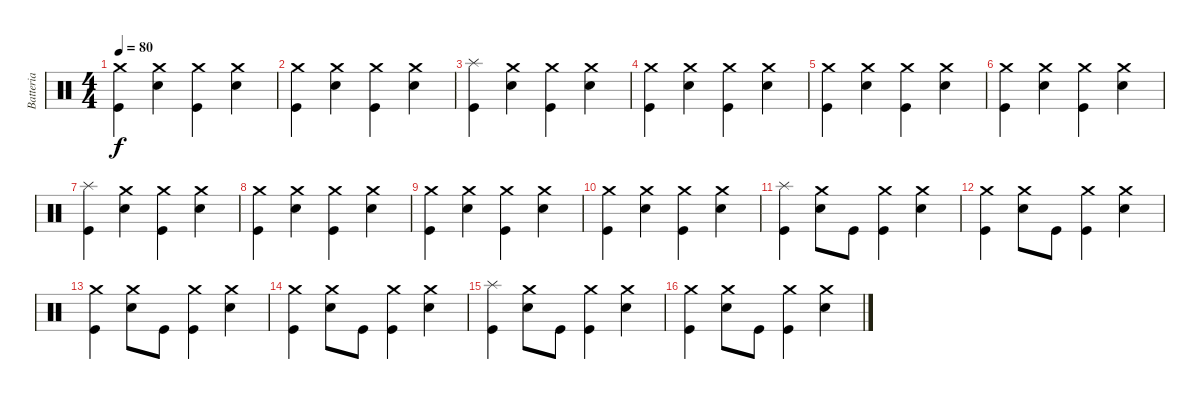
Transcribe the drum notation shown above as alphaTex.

\track ("Batteria" "Batteria") {instrument percussion}
\staff {score}
\articulation defaults
\ts (4 4)
\tempo 80
\clef neutral
\ks c
("Crash medium (hit)" "Kick (hit)").4{dy f} ("Crash medium (hit)" "Electric Snare (hit)").4 ("Crash medium (hit)" "Kick (hit)").4 ("Crash medium (hit)" "Electric Snare (hit)").4 |
("Crash medium (hit)" "Kick (hit)").4 ("Crash medium (hit)" "Electric Snare (hit)").4 ("Crash medium (hit)" "Kick (hit)").4 ("Crash medium (hit)" "Electric Snare (hit)").4 |
("Splash (hit)" "Kick (hit)").4 ("Crash medium (hit)" "Electric Snare (hit)").4 ("Crash medium (hit)" "Kick (hit)").4 ("Crash medium (hit)" "Electric Snare (hit)").4 |
("Crash medium (hit)" "Kick (hit)").4 ("Crash medium (hit)" "Electric Snare (hit)").4 ("Crash medium (hit)" "Kick (hit)").4 ("Crash medium (hit)" "Electric Snare (hit)").4 |
("Crash medium (hit)" "Kick (hit)").4 ("Crash medium (hit)" "Electric Snare (hit)").4 ("Crash medium (hit)" "Kick (hit)").4 ("Crash medium (hit)" "Electric Snare (hit)").4 |
("Crash medium (hit)" "Kick (hit)").4 ("Crash medium (hit)" "Electric Snare (hit)").4 ("Crash medium (hit)" "Kick (hit)").4 ("Crash medium (hit)" "Electric Snare (hit)").4 |
("Splash (hit)" "Kick (hit)").4 ("Crash medium (hit)" "Electric Snare (hit)").4 ("Crash medium (hit)" "Kick (hit)").4 ("Crash medium (hit)" "Electric Snare (hit)").4 |
("Crash medium (hit)" "Kick (hit)").4 ("Crash medium (hit)" "Electric Snare (hit)").4 ("Crash medium (hit)" "Kick (hit)").4 ("Crash medium (hit)" "Electric Snare (hit)").4 |
("Crash medium (hit)" "Kick (hit)").4 ("Crash medium (hit)" "Electric Snare (hit)").4 ("Crash medium (hit)" "Kick (hit)").4 ("Crash medium (hit)" "Electric Snare (hit)").4 |
("Crash medium (hit)" "Kick (hit)").4 ("Crash medium (hit)" "Electric Snare (hit)").4 ("Crash medium (hit)" "Kick (hit)").4 ("Crash medium (hit)" "Electric Snare (hit)").4 |
("Splash (hit)" "Kick (hit)").4 ("Crash medium (hit)" "Electric Snare (hit)").8 "Kick (hit)".8 ("Crash medium (hit)" "Kick (hit)").4 ("Crash medium (hit)" "Electric Snare (hit)").4 |
("Crash medium (hit)" "Kick (hit)").4 ("Crash medium (hit)" "Electric Snare (hit)").8 "Kick (hit)".8 ("Crash medium (hit)" "Kick (hit)").4 ("Crash medium (hit)" "Electric Snare (hit)").4 |
("Crash medium (hit)" "Kick (hit)").4 ("Crash medium (hit)" "Electric Snare (hit)").8 "Kick (hit)".8 ("Crash medium (hit)" "Kick (hit)").4 ("Crash medium (hit)" "Electric Snare (hit)").4 |
("Crash medium (hit)" "Kick (hit)").4 ("Crash medium (hit)" "Electric Snare (hit)").8 "Kick (hit)".8 ("Crash medium (hit)" "Kick (hit)").4 ("Crash medium (hit)" "Electric Snare (hit)").4 |
("Splash (hit)" "Kick (hit)").4 ("Crash medium (hit)" "Electric Snare (hit)").8 "Kick (hit)".8 ("Crash medium (hit)" "Kick (hit)").4 ("Crash medium (hit)" "Electric Snare (hit)").4 |
("Crash medium (hit)" "Kick (hit)").4 ("Crash medium (hit)" "Electric Snare (hit)").8 "Kick (hit)".8 ("Crash medium (hit)" "Kick (hit)").4 ("Crash medium (hit)" "Electric Snare (hit)").4
